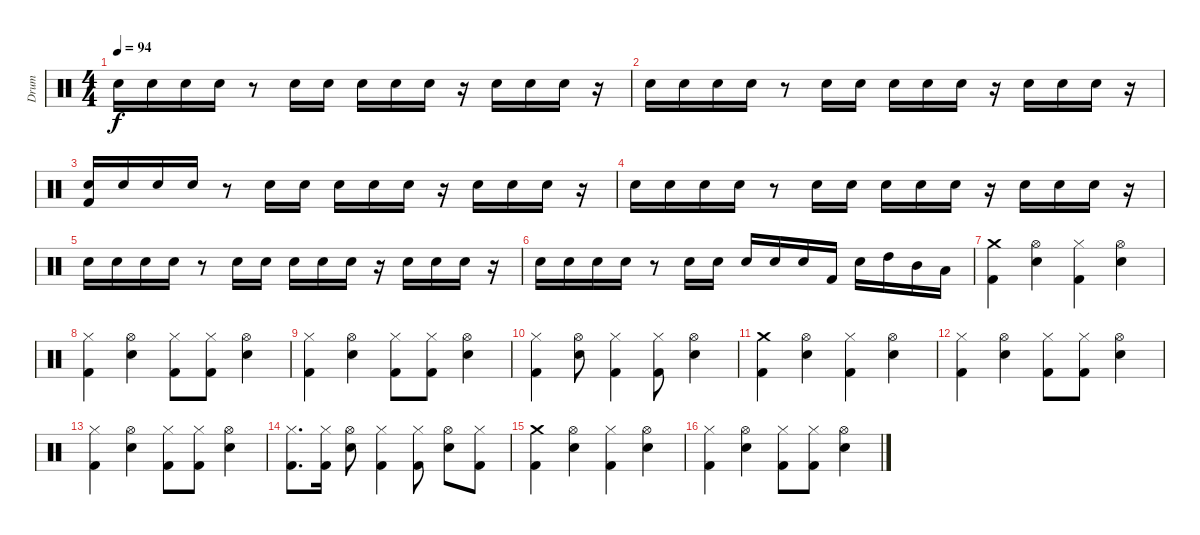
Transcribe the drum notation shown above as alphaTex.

\track ("Drum" "Drum") {instrument percussion}
\staff {score}
\articulation defaults
\ts (4 4)
\tempo 94
\clef neutral
\ks c "Electric Snare (hit)".16{dy f} "Electric Snare (hit)".16 "Electric Snare (hit)".16 "Electric Snare (hit)".16
r.8 "Electric Snare (hit)".16 "Electric Snare (hit)".16 "Electric Snare (hit)".16 "Electric Snare (hit)".16 "Electric Snare (hit)".16 r.16 "Electric Snare (hit)".16 "Electric Snare (hit)".16 "Electric Snare (hit)".16 r.16 |
"Electric Snare (hit)".16 "Electric Snare (hit)".16 "Electric Snare (hit)".16 "Electric Snare (hit)".16 r.8 "Electric Snare (hit)".16 "Electric Snare (hit)".16 "Electric Snare (hit)".16 "Electric Snare (hit)".16 "Electric Snare (hit)".16 r.16 "Electric Snare (hit)".16 "Electric Snare (hit)".16 "Electric Snare (hit)".16 r.16 |
("Electric Snare (hit)" "Kick (hit) 2").16 "Electric Snare (hit)".16 "Electric Snare (hit)".16 "Electric Snare (hit)".16 r.8 "Electric Snare (hit)".16 "Electric Snare (hit)".16 "Electric Snare (hit)".16 "Electric Snare (hit)".16 "Electric Snare (hit)".16 r.16 "Electric Snare (hit)".16 "Electric Snare (hit)".16 "Electric Snare (hit)".16 r.16 |
"Electric Snare (hit)".16 "Electric Snare (hit)".16 "Electric Snare (hit)".16 "Electric Snare (hit)".16 r.8 "Electric Snare (hit)".16 "Electric Snare (hit)".16 "Electric Snare (hit)".16 "Electric Snare (hit)".16 "Electric Snare (hit)".16 r.16 "Electric Snare (hit)".16 "Electric Snare (hit)".16 "Electric Snare (hit)".16 r.16 |
"Electric Snare (hit)".16 "Electric Snare (hit)".16 "Electric Snare (hit)".16 "Electric Snare (hit)".16 r.8 "Electric Snare (hit)".16 "Electric Snare (hit)".16 "Electric Snare (hit)".16 "Electric Snare (hit)".16 "Electric Snare (hit)".16 r.16 "Electric Snare (hit)".16 "Electric Snare (hit)".16 "Electric Snare (hit)".16 r.16 |
"Electric Snare (hit)".16 "Electric Snare (hit)".16 "Electric Snare (hit)".16 "Electric Snare (hit)".16 r.8 "Electric Snare (hit)".16 "Electric Snare (hit)".16 "Electric Snare (hit)".16 "Electric Snare (hit)".16 "Electric Snare (hit)".16 "Kick (hit) 2".16 "Electric Snare (hit)".16 "High Tom (hit)".16 "Mid Tom (hit)".16 "Low Tom (hit)".16 |
("Kick (hit) 2" "Crash medium (hit)").4 ("Hi-Hat (open)" "Electric Snare (hit)").4 ("Hi-Hat (closed)" "Kick (hit) 2").4 ("Hi-Hat (open)" "Electric Snare (hit)").4 |
("Kick (hit) 2" "Hi-Hat (closed)").4 ("Hi-Hat (open)" "Electric Snare (hit)").4 ("Kick (hit) 2" "Hi-Hat (closed)").8 ("Kick (hit) 2" "Hi-Hat (closed)").8 ("Hi-Hat (open)" "Electric Snare (hit)").4 |
("Kick (hit) 2" "Hi-Hat (closed)").4 ("Hi-Hat (open)" "Electric Snare (hit)").4 ("Kick (hit) 2" "Hi-Hat (closed)").8 ("Kick (hit) 2" "Hi-Hat (closed)").8 ("Hi-Hat (open)" "Electric Snare (hit)").4 |
("Kick (hit) 2" "Hi-Hat (closed)").4 ("Hi-Hat (open)" "Electric Snare (hit)").8 ("Kick (hit) 2" "Hi-Hat (closed)").4 ("Kick (hit) 2" "Hi-Hat (closed)").8 ("Hi-Hat (open)" "Electric Snare (hit)").4 |
("Kick (hit) 2" "Crash medium (hit)").4 ("Hi-Hat (open)" "Electric Snare (hit)").4 ("Hi-Hat (closed)" "Kick (hit) 2").4 ("Hi-Hat (open)" "Electric Snare (hit)").4 |
("Kick (hit) 2" "Hi-Hat (closed)").4 ("Hi-Hat (open)" "Electric Snare (hit)").4 ("Kick (hit) 2" "Hi-Hat (closed)").8 ("Kick (hit) 2" "Hi-Hat (closed)").8 ("Hi-Hat (open)" "Electric Snare (hit)").4 |
("Kick (hit) 2" "Hi-Hat (closed)").4 ("Hi-Hat (open)" "Electric Snare (hit)").4 ("Kick (hit) 2" "Hi-Hat (closed)").8 ("Kick (hit) 2" "Hi-Hat (closed)").8 ("Hi-Hat (open)" "Electric Snare (hit)").4 |
("Kick (hit) 2" "Hi-Hat (closed)").8{d} ("Kick (hit) 2" "Hi-Hat (closed)").16 ("Hi-Hat (open)" "Electric Snare (hit)").8 ("Kick (hit) 2" "Hi-Hat (closed)").4 ("Kick (hit) 2" "Hi-Hat (closed)").8 ("Hi-Hat (open)" "Electric Snare (hit)").8 ("Kick (hit) 2" "Hi-Hat (closed)").8 |
("Kick (hit) 2" "Crash medium (hit)").4 ("Hi-Hat (open)" "Electric Snare (hit)").4 ("Hi-Hat (closed)" "Kick (hit) 2").4 ("Hi-Hat (open)" "Electric Snare (hit)").4 |
("Kick (hit) 2" "Hi-Hat (closed)").4 ("Hi-Hat (open)" "Electric Snare (hit)").4 ("Kick (hit) 2" "Hi-Hat (closed)").8 ("Kick (hit) 2" "Hi-Hat (closed)").8 ("Hi-Hat (open)" "Electric Snare (hit)").4
